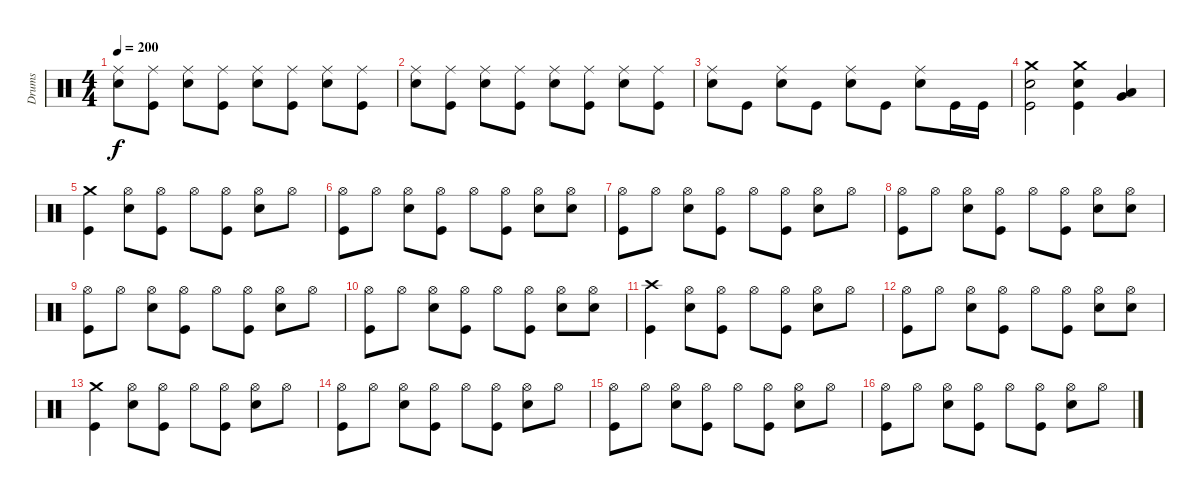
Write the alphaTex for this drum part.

\track ("Drums" "Drums") {instrument percussion}
\staff {score}
\articulation defaults
\ts (4 4)
\tempo 200
\clef neutral
\ks c
("Ride (middle)" "Snare (hit) 2").8{dy f} ("Ride (middle)" "Kick (hit)").8 ("Ride (middle)" "Snare (hit) 2").8 ("Ride (middle)" "Kick (hit)").8 ("Ride (middle)" "Snare (hit) 2").8 ("Ride (middle)" "Kick (hit)").8 ("Ride (middle)" "Snare (hit) 2").8 ("Ride (middle)" "Kick (hit)").8 |
("Ride (middle)" "Snare (hit) 2").8 ("Ride (middle)" "Kick (hit)").8 ("Ride (middle)" "Snare (hit) 2").8 ("Ride (middle)" "Kick (hit)").8 ("Ride (middle)" "Snare (hit) 2").8 ("Ride (middle)" "Kick (hit)").8 ("Ride (middle)" "Snare (hit) 2").8 ("Ride (middle)" "Kick (hit)").8 |
("Ride (middle)" "Snare (hit) 2").8 "Kick (hit)".8 ("Ride (middle)" "Snare (hit) 2").8 "Kick (hit)".8 ("Ride (middle)" "Snare (hit) 2").8 "Kick (hit)".8 ("Ride (middle)" "Snare (hit) 2").8 "Kick (hit)".16 "Kick (hit)".16 |
("Crash medium (hit)" "Snare (hit) 2" "Kick (hit)").2 ("Crash medium (hit)" "Snare (hit) 2" "Kick (hit)").4 ("Very Low Tom (hit)" "Low Floor Tom (hit)").4 |
("Crash medium (hit)" "Kick (hit)").4 ("Hi-Hat (open)" "Snare (hit) 2").8 ("Hi-Hat (open)" "Kick (hit)").8 "Hi-Hat (open)".8 ("Hi-Hat (open)" "Kick (hit)").8 ("Hi-Hat (open)" "Snare (hit) 2").8 "Hi-Hat (open)".8 |
("Hi-Hat (open)" "Kick (hit)").8 "Hi-Hat (open)".8 ("Hi-Hat (open)" "Snare (hit) 2").8 ("Hi-Hat (open)" "Kick (hit)").8 "Hi-Hat (open)".8 ("Hi-Hat (open)" "Kick (hit)").8 ("Hi-Hat (open)" "Snare (hit) 2").8 ("Hi-Hat (open)" "Snare (hit) 2").8 |
("Hi-Hat (open)" "Kick (hit)").8 "Hi-Hat (open)".8 ("Hi-Hat (open)" "Snare (hit) 2").8 ("Hi-Hat (open)" "Kick (hit)").8 "Hi-Hat (open)".8 ("Hi-Hat (open)" "Kick (hit)").8 ("Hi-Hat (open)" "Snare (hit) 2").8 "Hi-Hat (open)".8 |
("Hi-Hat (open)" "Kick (hit)").8 "Hi-Hat (open)".8 ("Hi-Hat (open)" "Snare (hit) 2").8 ("Hi-Hat (open)" "Kick (hit)").8 "Hi-Hat (open)".8 ("Hi-Hat (open)" "Kick (hit)").8 ("Hi-Hat (open)" "Snare (hit) 2").8 ("Hi-Hat (open)" "Snare (hit) 2").8 |
("Hi-Hat (open)" "Kick (hit)").8 "Hi-Hat (open)".8 ("Hi-Hat (open)" "Snare (hit) 2").8 ("Hi-Hat (open)" "Kick (hit)").8 "Hi-Hat (open)".8 ("Hi-Hat (open)" "Kick (hit)").8 ("Hi-Hat (open)" "Snare (hit) 2").8 "Hi-Hat (open)".8 |
("Hi-Hat (open)" "Kick (hit)").8 "Hi-Hat (open)".8 ("Hi-Hat (open)" "Snare (hit) 2").8 ("Hi-Hat (open)" "Kick (hit)").8 "Hi-Hat (open)".8 ("Hi-Hat (open)" "Kick (hit)").8 ("Hi-Hat (open)" "Snare (hit) 2").8 ("Hi-Hat (open)" "Snare (hit) 2").8 |
("Crash high (hit)" "Kick (hit)").4 ("Hi-Hat (open)" "Snare (hit) 2").8 ("Hi-Hat (open)" "Kick (hit)").8 "Hi-Hat (open)".8 ("Hi-Hat (open)" "Kick (hit)").8 ("Hi-Hat (open)" "Snare (hit) 2").8 "Hi-Hat (open)".8 |
("Hi-Hat (open)" "Kick (hit)").8 "Hi-Hat (open)".8 ("Hi-Hat (open)" "Snare (hit) 2").8 ("Hi-Hat (open)" "Kick (hit)").8 "Hi-Hat (open)".8 ("Hi-Hat (open)" "Kick (hit)").8 ("Hi-Hat (open)" "Snare (hit) 2").8 ("Hi-Hat (open)" "Snare (hit) 2").8 |
("Crash medium (hit)" "Kick (hit)").4 ("Hi-Hat (open)" "Snare (hit) 2").8 ("Hi-Hat (open)" "Kick (hit)").8 "Hi-Hat (open)".8 ("Hi-Hat (open)" "Kick (hit)").8 ("Hi-Hat (open)" "Snare (hit) 2").8 "Hi-Hat (open)".8 |
("Hi-Hat (open)" "Kick (hit)").8 "Hi-Hat (open)".8 ("Hi-Hat (open)" "Snare (hit) 2").8 ("Hi-Hat (open)" "Kick (hit)").8 "Hi-Hat (open)".8 ("Hi-Hat (open)" "Kick (hit)").8 ("Hi-Hat (open)" "Snare (hit) 2").8 "Hi-Hat (open)".8 |
("Hi-Hat (open)" "Kick (hit)").8 "Hi-Hat (open)".8 ("Hi-Hat (open)" "Snare (hit) 2").8 ("Hi-Hat (open)" "Kick (hit)").8 "Hi-Hat (open)".8 ("Hi-Hat (open)" "Kick (hit)").8 ("Hi-Hat (open)" "Snare (hit) 2").8 "Hi-Hat (open)".8 |
("Hi-Hat (open)" "Kick (hit)").8 "Hi-Hat (open)".8 ("Hi-Hat (open)" "Snare (hit) 2").8 ("Hi-Hat (open)" "Kick (hit)").8 "Hi-Hat (open)".8 ("Hi-Hat (open)" "Kick (hit)").8 ("Hi-Hat (open)" "Snare (hit) 2").8 "Hi-Hat (open)".8
